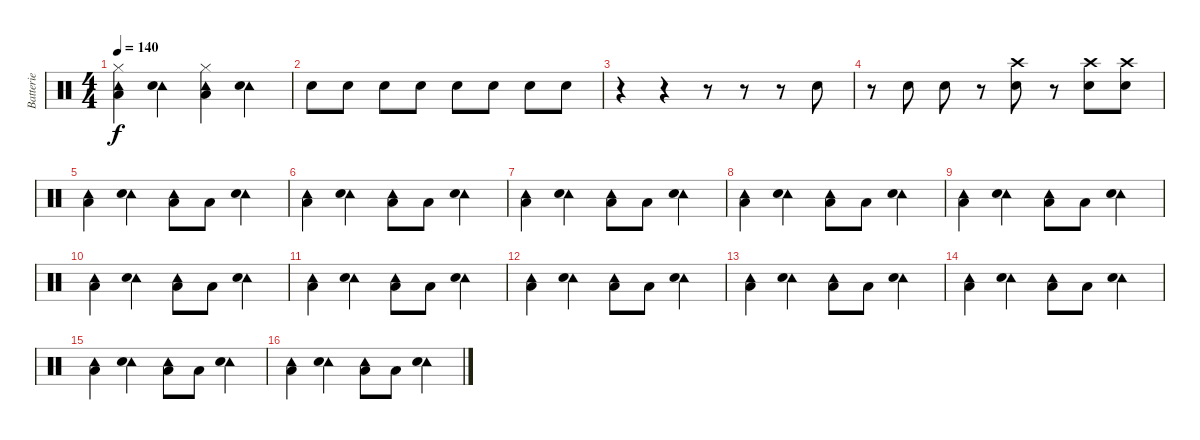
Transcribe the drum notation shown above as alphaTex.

\track ("Batterie" "Batterie") {instrument percussion}
\staff {score}
\articulation defaults
\ts (4 4)
\tempo 140
\clef neutral
\ks c
("Tambourine (hit)" "Hi-Hat (closed)" "Low Floor Tom (hit)").4{dy f} ("Tambourine (hit)" "Electric Snare (hit)").4 ("Tambourine (hit)" "Hi-Hat (closed)" "Low Floor Tom (hit)").4 ("Tambourine (hit)" "Electric Snare (hit)").4 |
"Snare (hit) 2".8 "Snare (hit) 2".8 "Snare (hit) 2".8 "Snare (hit) 2".8 "Snare (hit) 2".8 "Snare (hit) 2".8 "Snare (hit) 2".8 "Snare (hit) 2".8 |
r.4 r.4 r.8 r.8 r.8 "Snare (hit) 2".8 |
r.8 "Snare (hit) 2".8 "Snare (hit) 2".8 r.8 ("Crash high (hit)" "Snare (hit) 2").8 r.8 ("Crash high (hit)" "Snare (hit) 2").8 ("Crash high (hit)" "Snare (hit) 2").8 |
("Tambourine (hit)" "Low Floor Tom (hit)").4 ("Tambourine (hit)" "Electric Snare (hit)").4 ("Tambourine (hit)" "Low Floor Tom (hit)").8 "Low Floor Tom (hit)".8 ("Tambourine (hit)" "Electric Snare (hit)").4 |
("Tambourine (hit)" "Low Floor Tom (hit)").4 ("Tambourine (hit)" "Electric Snare (hit)").4 ("Tambourine (hit)" "Low Floor Tom (hit)").8 "Low Floor Tom (hit)".8 ("Tambourine (hit)" "Electric Snare (hit)").4 |
("Tambourine (hit)" "Low Floor Tom (hit)").4 ("Tambourine (hit)" "Electric Snare (hit)").4 ("Tambourine (hit)" "Low Floor Tom (hit)").8 "Low Floor Tom (hit)".8 ("Tambourine (hit)" "Electric Snare (hit)").4 |
("Tambourine (hit)" "Low Floor Tom (hit)").4 ("Tambourine (hit)" "Electric Snare (hit)").4 ("Tambourine (hit)" "Low Floor Tom (hit)").8 "Low Floor Tom (hit)".8 ("Tambourine (hit)" "Electric Snare (hit)").4 |
("Tambourine (hit)" "Low Floor Tom (hit)").4 ("Tambourine (hit)" "Electric Snare (hit)").4 ("Tambourine (hit)" "Low Floor Tom (hit)").8 "Low Floor Tom (hit)".8 ("Tambourine (hit)" "Electric Snare (hit)").4 |
("Tambourine (hit)" "Low Floor Tom (hit)").4 ("Tambourine (hit)" "Electric Snare (hit)").4 ("Tambourine (hit)" "Low Floor Tom (hit)").8 "Low Floor Tom (hit)".8 ("Tambourine (hit)" "Electric Snare (hit)").4 |
("Tambourine (hit)" "Low Floor Tom (hit)").4 ("Tambourine (hit)" "Electric Snare (hit)").4 ("Tambourine (hit)" "Low Floor Tom (hit)").8 "Low Floor Tom (hit)".8 ("Tambourine (hit)" "Electric Snare (hit)").4 |
("Tambourine (hit)" "Low Floor Tom (hit)").4 ("Tambourine (hit)" "Electric Snare (hit)").4 ("Tambourine (hit)" "Low Floor Tom (hit)").8 "Low Floor Tom (hit)".8 ("Tambourine (hit)" "Electric Snare (hit)").4 |
("Tambourine (hit)" "Low Floor Tom (hit)").4 ("Tambourine (hit)" "Electric Snare (hit)").4 ("Tambourine (hit)" "Low Floor Tom (hit)").8 "Low Floor Tom (hit)".8 ("Tambourine (hit)" "Electric Snare (hit)").4 |
("Tambourine (hit)" "Low Floor Tom (hit)").4 ("Tambourine (hit)" "Electric Snare (hit)").4 ("Tambourine (hit)" "Low Floor Tom (hit)").8 "Low Floor Tom (hit)".8 ("Tambourine (hit)" "Electric Snare (hit)").4 |
("Tambourine (hit)" "Low Floor Tom (hit)").4 ("Tambourine (hit)" "Electric Snare (hit)").4 ("Tambourine (hit)" "Low Floor Tom (hit)").8 "Low Floor Tom (hit)".8 ("Tambourine (hit)" "Electric Snare (hit)").4 |
("Tambourine (hit)" "Low Floor Tom (hit)").4 ("Tambourine (hit)" "Electric Snare (hit)").4 ("Tambourine (hit)" "Low Floor Tom (hit)").8 "Low Floor Tom (hit)".8 ("Tambourine (hit)" "Electric Snare (hit)").4
